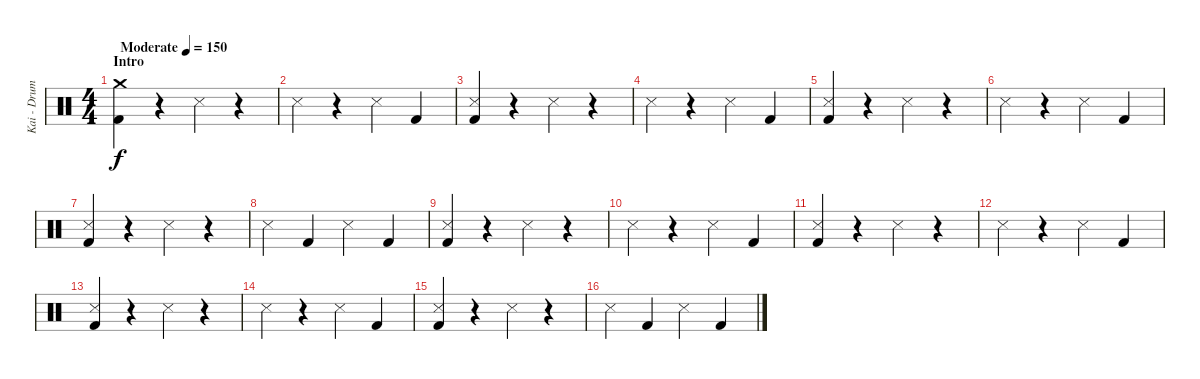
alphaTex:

\track ("Kai - Drums" "Kai - Drum") {instrument percussion}
\staff {score}
\articulation defaults
\ts (4 4)
\section ("" "Intro")
\tempo (150 "Moderate")
\clef neutral
\ks c
("Crash medium (hit)" "Kick (hit) 2").4{dy f} r.4 "Snare (side stick) 3".4 r.4 |
"Snare (side stick) 3".4 r.4 "Snare (side stick) 3".4 "Kick (hit) 2".4 |
("Snare (side stick) 3" "Kick (hit) 2").4 r.4 "Snare (side stick) 3".4 r.4 |
"Snare (side stick) 3".4 r.4 "Snare (side stick) 3".4 "Kick (hit) 2".4 |
("Snare (side stick) 3" "Kick (hit) 2").4 r.4 "Snare (side stick) 3".4 r.4 |
"Snare (side stick) 3".4 r.4 "Snare (side stick) 3".4 "Kick (hit) 2".4 |
("Snare (side stick) 3" "Kick (hit) 2").4 r.4 "Snare (side stick) 3".4 r.4 |
"Snare (side stick) 3".4 "Kick (hit) 2".4 "Snare (side stick) 3".4 "Kick (hit) 2".4 |
("Snare (side stick) 3" "Kick (hit) 2").4 r.4 "Snare (side stick) 3".4 r.4 |
"Snare (side stick) 3".4 r.4 "Snare (side stick) 3".4 "Kick (hit) 2".4 |
("Snare (side stick) 3" "Kick (hit) 2").4 r.4 "Snare (side stick) 3".4 r.4 |
"Snare (side stick) 3".4 r.4 "Snare (side stick) 3".4 "Kick (hit) 2".4 |
("Snare (side stick) 3" "Kick (hit) 2").4 r.4 "Snare (side stick) 3".4 r.4 |
"Snare (side stick) 3".4 r.4 "Snare (side stick) 3".4 "Kick (hit) 2".4 |
("Snare (side stick) 3" "Kick (hit) 2").4 r.4 "Snare (side stick) 3".4 r.4 |
"Snare (side stick) 3".4 "Kick (hit) 2".4 "Snare (side stick) 3".4 "Kick (hit) 2".4
